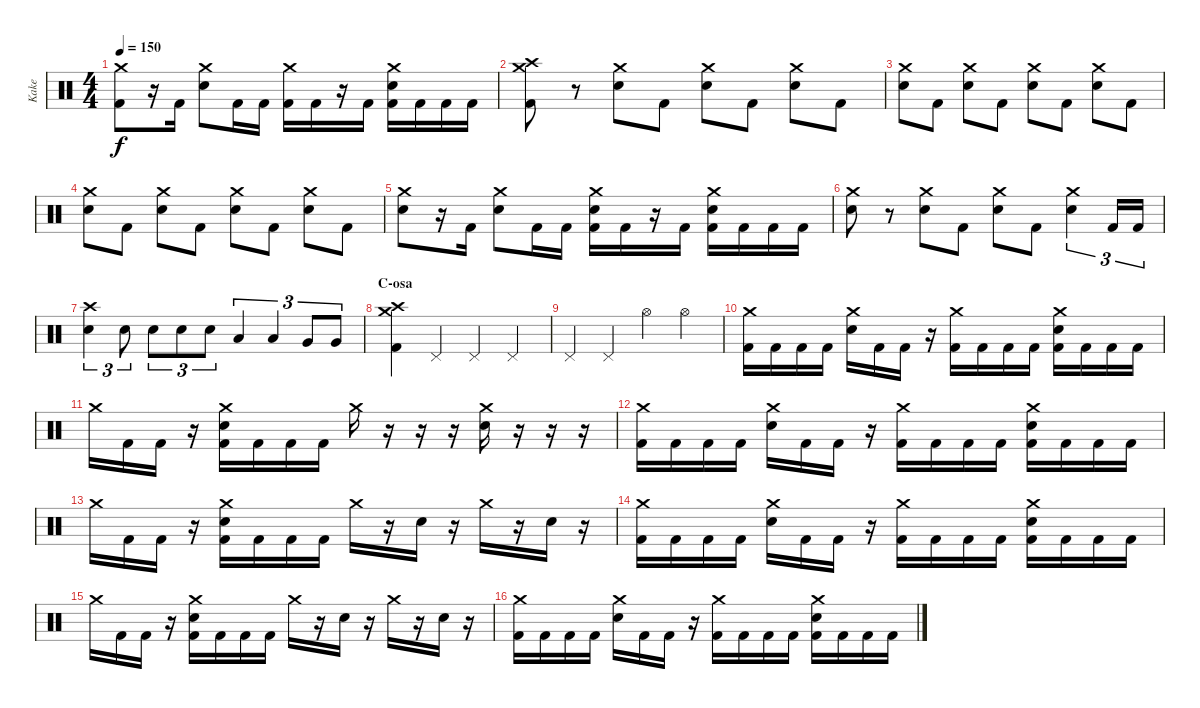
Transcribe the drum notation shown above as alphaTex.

\track ("Kake" "Kake") {instrument percussion}
\staff {score}
\articulation defaults
\ts (4 4)
\tempo 150
\clef neutral
\ks c
("Crash medium (hit)" "Kick (hit) 2").8{dy f} r.16 "Kick (hit) 2".16 ("Crash medium (hit)" "Electric Snare (hit)").8 "Kick (hit) 2".16 "Kick (hit) 2".16 ("Crash medium (hit)" "Kick (hit) 2").16 "Kick (hit) 2".16 r.16 "Kick (hit) 2".16 ("Crash medium (hit)" "Electric Snare (hit)" "Kick (hit) 2").16 "Kick (hit) 2".16 "Kick (hit) 2".16 "Kick (hit) 2".16 |
("Crash medium (hit)" "Crash high (hit)" "Kick (hit) 2").8 r.8 ("Crash medium (hit)" "Electric Snare (hit)").8 "Kick (hit) 2".8 ("Crash medium (hit)" "Electric Snare (hit)").8 "Kick (hit) 2".8 ("Crash medium (hit)" "Electric Snare (hit)").8 "Kick (hit) 2".8 |
("Crash medium (hit)" "Electric Snare (hit)").8 "Kick (hit) 2".8 ("Crash medium (hit)" "Electric Snare (hit)").8 "Kick (hit) 2".8 ("Crash medium (hit)" "Electric Snare (hit)").8 "Kick (hit) 2".8 ("Crash medium (hit)" "Electric Snare (hit)").8 "Kick (hit) 2".8 |
("Crash medium (hit)" "Electric Snare (hit)").8 "Kick (hit) 2".8 ("Crash medium (hit)" "Electric Snare (hit)").8 "Kick (hit) 2".8 ("Crash medium (hit)" "Electric Snare (hit)").8 "Kick (hit) 2".8 ("Crash medium (hit)" "Electric Snare (hit)").8 "Kick (hit) 2".8 |
("Crash medium (hit)" "Electric Snare (hit)").8 r.16 "Kick (hit) 2".16 ("Crash medium (hit)" "Electric Snare (hit)").8 "Kick (hit) 2".16 "Kick (hit) 2".16 ("Crash medium (hit)" "Electric Snare (hit)" "Kick (hit) 2").16 "Kick (hit) 2".16 r.16 "Kick (hit) 2".16 ("Crash medium (hit)" "Electric Snare (hit)" "Kick (hit) 2").16 "Kick (hit) 2".16 "Kick (hit) 2".16 "Kick (hit) 2".16 |
("Crash medium (hit)" "Electric Snare (hit)").8 r.8 ("Crash medium (hit)" "Electric Snare (hit)").8 "Kick (hit) 2".8 ("Crash medium (hit)" "Electric Snare (hit)").8 "Kick (hit) 2".8 ("Crash medium (hit)" "Electric Snare (hit)").4{tu (3 2)} "Kick (hit) 2".16{tu (3 2)} "Kick (hit) 2".16{tu (3 2)} |
("Crash high (hit)" "Electric Snare (hit)").4{tu (3 2)} "Electric Snare (hit)".8{tu (3 2)} "Electric Snare (hit)".8{tu (3 2)} "Electric Snare (hit)".8{tu (3 2)} "Electric Snare (hit)".8{tu (3 2)} "Low Tom (hit)".4{tu (3 2)} "Low Tom (hit)".4{tu (3 2)} "Very Low Tom (hit)".8{tu (3 2)} "Very Low Tom (hit)".8{tu (3 2)} |
\section ("" "C-osa")
("Crash high (hit)" "Crash medium (hit)" "Kick (hit) 2").4 "Pedal Hi-Hat (hit)".4 "Pedal Hi-Hat (hit)".4 "Pedal Hi-Hat (hit)".4 |
"Pedal Hi-Hat (hit)".4 "Pedal Hi-Hat (hit)".4 "Hi-Hat (open)".4 "Hi-Hat (open)".4 |
("Crash medium (hit)" "Kick (hit) 2").16 "Kick (hit) 2".16 "Kick (hit) 2".16 "Kick (hit) 2".16 ("Crash medium (hit)" "Electric Snare (hit)").16 "Kick (hit) 2".16 "Kick (hit) 2".16 r.16 ("Crash medium (hit)" "Kick (hit) 2").16 "Kick (hit) 2".16 "Kick (hit) 2".16 "Kick (hit) 2".16 ("Crash medium (hit)" "Electric Snare (hit)" "Kick (hit) 2").16 "Kick (hit) 2".16 "Kick (hit) 2".16 "Kick (hit) 2".16 |
"Crash medium (hit)".16 "Kick (hit) 2".16 "Kick (hit) 2".16 r.16 ("Crash medium (hit)" "Electric Snare (hit)" "Kick (hit) 2").16 "Kick (hit) 2".16 "Kick (hit) 2".16 "Kick (hit) 2".16 "Crash medium (hit)".16 r.16 r.16 r.16 ("Crash medium (hit)" "Electric Snare (hit)").16 r.16 r.16 r.16 |
("Crash medium (hit)" "Kick (hit) 2").16 "Kick (hit) 2".16 "Kick (hit) 2".16 "Kick (hit) 2".16 ("Crash medium (hit)" "Electric Snare (hit)").16 "Kick (hit) 2".16 "Kick (hit) 2".16 r.16 ("Crash medium (hit)" "Kick (hit) 2").16 "Kick (hit) 2".16 "Kick (hit) 2".16 "Kick (hit) 2".16 ("Crash medium (hit)" "Electric Snare (hit)" "Kick (hit) 2").16 "Kick (hit) 2".16 "Kick (hit) 2".16 "Kick (hit) 2".16 |
"Crash medium (hit)".16 "Kick (hit) 2".16 "Kick (hit) 2".16 r.16 ("Crash medium (hit)" "Electric Snare (hit)" "Kick (hit) 2").16 "Kick (hit) 2".16 "Kick (hit) 2".16 "Kick (hit) 2".16 "Crash medium (hit)".16 r.16 "Electric Snare (hit)".16 r.16 "Crash medium (hit)".16 r.16 "Electric Snare (hit)".16 r.16 |
("Crash medium (hit)" "Kick (hit) 2").16 "Kick (hit) 2".16 "Kick (hit) 2".16 "Kick (hit) 2".16 ("Crash medium (hit)" "Electric Snare (hit)").16 "Kick (hit) 2".16 "Kick (hit) 2".16 r.16 ("Crash medium (hit)" "Kick (hit) 2").16 "Kick (hit) 2".16 "Kick (hit) 2".16 "Kick (hit) 2".16 ("Crash medium (hit)" "Electric Snare (hit)" "Kick (hit) 2").16 "Kick (hit) 2".16 "Kick (hit) 2".16 "Kick (hit) 2".16 |
"Crash medium (hit)".16 "Kick (hit) 2".16 "Kick (hit) 2".16 r.16 ("Crash medium (hit)" "Electric Snare (hit)" "Kick (hit) 2").16 "Kick (hit) 2".16 "Kick (hit) 2".16 "Kick (hit) 2".16 "Crash medium (hit)".16 r.16 "Electric Snare (hit)".16 r.16 "Crash medium (hit)".16 r.16 "Electric Snare (hit)".16 r.16 |
("Crash medium (hit)" "Kick (hit) 2").16 "Kick (hit) 2".16 "Kick (hit) 2".16 "Kick (hit) 2".16 ("Crash medium (hit)" "Electric Snare (hit)").16 "Kick (hit) 2".16 "Kick (hit) 2".16 r.16 ("Crash medium (hit)" "Kick (hit) 2").16 "Kick (hit) 2".16 "Kick (hit) 2".16 "Kick (hit) 2".16 ("Crash medium (hit)" "Electric Snare (hit)" "Kick (hit) 2").16 "Kick (hit) 2".16 "Kick (hit) 2".16 "Kick (hit) 2".16
